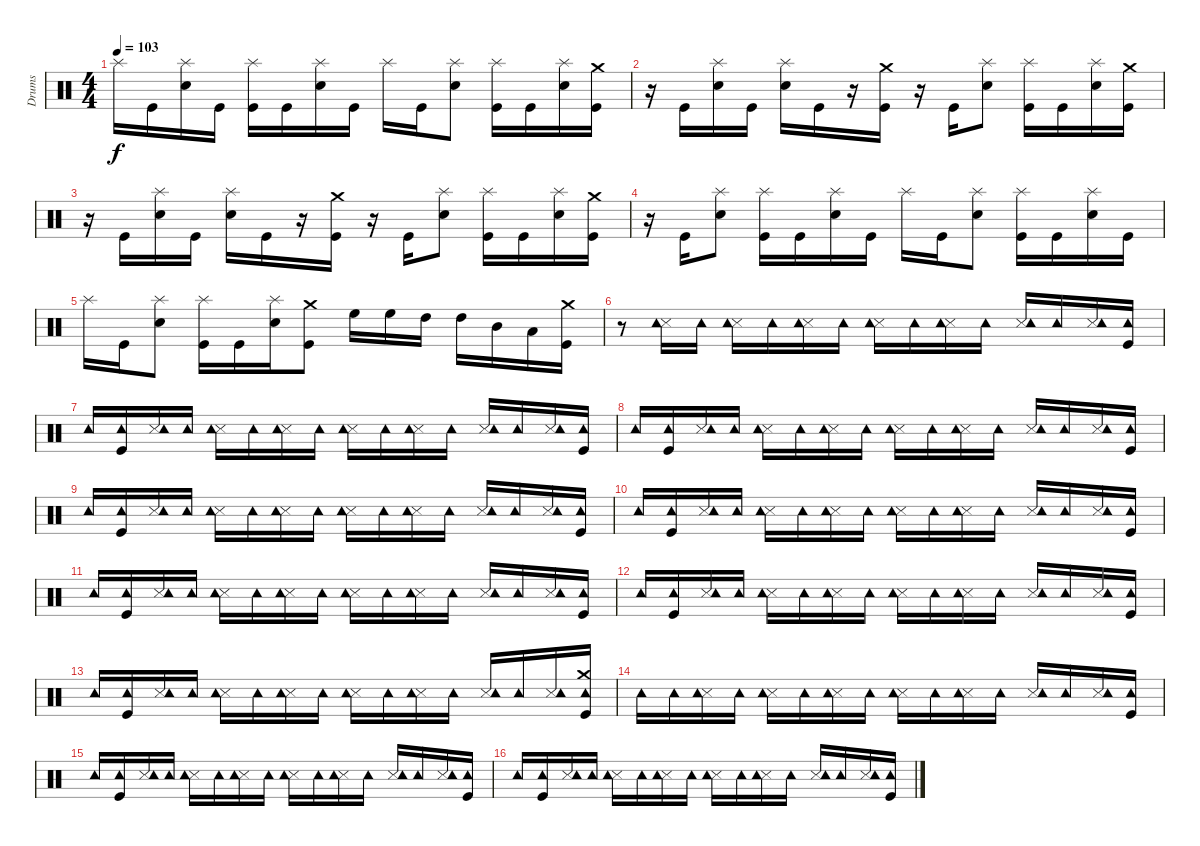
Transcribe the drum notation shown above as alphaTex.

\track ("Drums" "Drums") {instrument percussion}
\staff {score}
\articulation defaults
\ts (4 4)
\tempo 103
\clef neutral
\ks c "Splash (hit)".16{dy f} "Kick (hit)".16
("Splash (hit)" "Electric Snare (hit)").16 "Kick (hit)".16 ("Kick (hit)" "Splash (hit)").16 "Kick (hit)".16 ("Splash (hit)" "Electric Snare (hit)").16 "Kick (hit)".16 "Splash (hit)".16 "Kick (hit)".16 ("Splash (hit)" "Electric Snare (hit)").8 ("Kick (hit)" "Splash (hit)").16 "Kick (hit)".16 ("Splash (hit)" "Electric Snare (hit)").16 ("Crash medium (hit)" "Kick (hit)").16 |
r.16 "Kick (hit)".16 ("Splash (hit)" "Electric Snare (hit)").16 "Kick (hit)".16 ("Electric Snare (hit)" "Splash (hit)").16 "Kick (hit)".16 r.16 ("Crash medium (hit)" "Kick (hit)").16 r.16 "Kick (hit)".16 ("Splash (hit)" "Electric Snare (hit)").8 ("Kick (hit)" "Splash (hit)").16 "Kick (hit)".16 ("Splash (hit)" "Electric Snare (hit)").16 ("Crash medium (hit)" "Kick (hit)").16 |
r.16 "Kick (hit)".16 ("Splash (hit)" "Electric Snare (hit)").16 "Kick (hit)".16 ("Electric Snare (hit)" "Splash (hit)").16 "Kick (hit)".16 r.16 ("Crash medium (hit)" "Kick (hit)").16 r.16 "Kick (hit)".16 ("Splash (hit)" "Electric Snare (hit)").8 ("Kick (hit)" "Splash (hit)").16 "Kick (hit)".16 ("Splash (hit)" "Electric Snare (hit)").16 ("Crash medium (hit)" "Kick (hit)").16 |
r.16 "Kick (hit)".16 ("Splash (hit)" "Electric Snare (hit)").8 ("Kick (hit)" "Splash (hit)").16 "Kick (hit)".16 ("Splash (hit)" "Electric Snare (hit)").16 "Kick (hit)".16 "Splash (hit)".16 "Kick (hit)".16 ("Splash (hit)" "Electric Snare (hit)").8 ("Kick (hit)" "Splash (hit)").16 "Kick (hit)".16 ("Splash (hit)" "Electric Snare (hit)").16 "Kick (hit)".16 |
"Splash (hit)".16 "Kick (hit)".16 ("Splash (hit)" "Electric Snare (hit)").8 ("Splash (hit)" "Kick (hit)").16 "Kick (hit)".16 ("Splash (hit)" "Electric Snare (hit)").16 ("Kick (hit)" "Crash medium (hit)").8 "High Floor Tom (hit)".16 "High Floor Tom (hit)".16 "High Tom (hit)".16 "High Tom (hit)".16 "Mid Tom (hit)".16 "Low Tom (hit)".16 ("Crash medium (hit)" "Kick (hit)").16 |
r.8 ("Snare (side stick) 3" "Tambourine (hit)").16 "Tambourine (hit)".16 ("Snare (side stick) 3" "Tambourine (hit)").16 "Tambourine (hit)".16 ("Snare (side stick) 3" "Tambourine (hit)").16 "Tambourine (hit)".16 ("Snare (side stick) 3" "Tambourine (hit)").16 "Tambourine (hit)".16 ("Snare (side stick) 3" "Tambourine (hit)").16 "Tambourine (hit)".16 ("Snare (side stick) 3" "Tambourine (hit)").16 "Tambourine (hit)".16 ("Snare (side stick) 3" "Tambourine (hit)").16 ("Kick (hit)" "Tambourine (hit)").16 |
"Tambourine (hit)".16 ("Tambourine (hit)" "Kick (hit)").16 ("Snare (side stick) 3" "Tambourine (hit)").16 "Tambourine (hit)".16 ("Snare (side stick) 3" "Tambourine (hit)").16 "Tambourine (hit)".16 ("Snare (side stick) 3" "Tambourine (hit)").16 "Tambourine (hit)".16 ("Snare (side stick) 3" "Tambourine (hit)").16 "Tambourine (hit)".16 ("Snare (side stick) 3" "Tambourine (hit)").16 "Tambourine (hit)".16 ("Snare (side stick) 3" "Tambourine (hit)").16 "Tambourine (hit)".16 ("Snare (side stick) 3" "Tambourine (hit)").16 ("Kick (hit)" "Tambourine (hit)").16 |
"Tambourine (hit)".16 ("Tambourine (hit)" "Kick (hit)").16 ("Snare (side stick) 3" "Tambourine (hit)").16 "Tambourine (hit)".16 ("Snare (side stick) 3" "Tambourine (hit)").16 "Tambourine (hit)".16 ("Snare (side stick) 3" "Tambourine (hit)").16 "Tambourine (hit)".16 ("Snare (side stick) 3" "Tambourine (hit)").16 "Tambourine (hit)".16 ("Snare (side stick) 3" "Tambourine (hit)").16 "Tambourine (hit)".16 ("Snare (side stick) 3" "Tambourine (hit)").16 "Tambourine (hit)".16 ("Snare (side stick) 3" "Tambourine (hit)").16 ("Kick (hit)" "Tambourine (hit)").16 |
"Tambourine (hit)".16 ("Tambourine (hit)" "Kick (hit)").16 ("Snare (side stick) 3" "Tambourine (hit)").16 "Tambourine (hit)".16 ("Snare (side stick) 3" "Tambourine (hit)").16 "Tambourine (hit)".16 ("Snare (side stick) 3" "Tambourine (hit)").16 "Tambourine (hit)".16 ("Snare (side stick) 3" "Tambourine (hit)").16 "Tambourine (hit)".16 ("Snare (side stick) 3" "Tambourine (hit)").16 "Tambourine (hit)".16 ("Snare (side stick) 3" "Tambourine (hit)").16 "Tambourine (hit)".16 ("Snare (side stick) 3" "Tambourine (hit)").16 ("Kick (hit)" "Tambourine (hit)").16 |
"Tambourine (hit)".16 ("Tambourine (hit)" "Kick (hit)").16 ("Snare (side stick) 3" "Tambourine (hit)").16 "Tambourine (hit)".16 ("Snare (side stick) 3" "Tambourine (hit)").16 "Tambourine (hit)".16 ("Snare (side stick) 3" "Tambourine (hit)").16 "Tambourine (hit)".16 ("Snare (side stick) 3" "Tambourine (hit)").16 "Tambourine (hit)".16 ("Snare (side stick) 3" "Tambourine (hit)").16 "Tambourine (hit)".16 ("Snare (side stick) 3" "Tambourine (hit)").16 "Tambourine (hit)".16 ("Snare (side stick) 3" "Tambourine (hit)").16 ("Kick (hit)" "Tambourine (hit)").16 |
"Tambourine (hit)".16 ("Tambourine (hit)" "Kick (hit)").16 ("Snare (side stick) 3" "Tambourine (hit)").16 "Tambourine (hit)".16 ("Snare (side stick) 3" "Tambourine (hit)").16 "Tambourine (hit)".16 ("Snare (side stick) 3" "Tambourine (hit)").16 "Tambourine (hit)".16 ("Snare (side stick) 3" "Tambourine (hit)").16 "Tambourine (hit)".16 ("Snare (side stick) 3" "Tambourine (hit)").16 "Tambourine (hit)".16 ("Snare (side stick) 3" "Tambourine (hit)").16 "Tambourine (hit)".16 ("Snare (side stick) 3" "Tambourine (hit)").16 ("Kick (hit)" "Tambourine (hit)").16 |
"Tambourine (hit)".16 ("Tambourine (hit)" "Kick (hit)").16 ("Snare (side stick) 3" "Tambourine (hit)").16 "Tambourine (hit)".16 ("Snare (side stick) 3" "Tambourine (hit)").16 "Tambourine (hit)".16 ("Snare (side stick) 3" "Tambourine (hit)").16 "Tambourine (hit)".16 ("Snare (side stick) 3" "Tambourine (hit)").16 "Tambourine (hit)".16 ("Snare (side stick) 3" "Tambourine (hit)").16 "Tambourine (hit)".16 ("Snare (side stick) 3" "Tambourine (hit)").16 "Tambourine (hit)".16 ("Snare (side stick) 3" "Tambourine (hit)").16 ("Kick (hit)" "Tambourine (hit)").16 |
"Tambourine (hit)".16 ("Tambourine (hit)" "Kick (hit)").16 ("Snare (side stick) 3" "Tambourine (hit)").16 "Tambourine (hit)".16 ("Snare (side stick) 3" "Tambourine (hit)").16 "Tambourine (hit)".16 ("Snare (side stick) 3" "Tambourine (hit)").16 "Tambourine (hit)".16 ("Snare (side stick) 3" "Tambourine (hit)").16 "Tambourine (hit)".16 ("Snare (side stick) 3" "Tambourine (hit)").16 "Tambourine (hit)".16 ("Snare (side stick) 3" "Tambourine (hit)").16 "Tambourine (hit)".16 ("Snare (side stick) 3" "Tambourine (hit)").16 ("Crash medium (hit)" "Kick (hit)" "Tambourine (hit)").16 |
"Tambourine (hit)".16 "Tambourine (hit)".16 ("Snare (side stick) 3" "Tambourine (hit)").16 "Tambourine (hit)".16 ("Snare (side stick) 3" "Tambourine (hit)").16 "Tambourine (hit)".16 ("Snare (side stick) 3" "Tambourine (hit)").16 "Tambourine (hit)".16 ("Snare (side stick) 3" "Tambourine (hit)").16 "Tambourine (hit)".16 ("Snare (side stick) 3" "Tambourine (hit)").16 "Tambourine (hit)".16 ("Snare (side stick) 3" "Tambourine (hit)").16 "Tambourine (hit)".16 ("Snare (side stick) 3" "Tambourine (hit)").16 ("Kick (hit)" "Tambourine (hit)").16 |
"Tambourine (hit)".16 ("Tambourine (hit)" "Kick (hit)").16 ("Snare (side stick) 3" "Tambourine (hit)").16 "Tambourine (hit)".16 ("Snare (side stick) 3" "Tambourine (hit)").16 "Tambourine (hit)".16 ("Snare (side stick) 3" "Tambourine (hit)").16 "Tambourine (hit)".16 ("Snare (side stick) 3" "Tambourine (hit)").16 "Tambourine (hit)".16 ("Snare (side stick) 3" "Tambourine (hit)").16 "Tambourine (hit)".16 ("Snare (side stick) 3" "Tambourine (hit)").16 "Tambourine (hit)".16 ("Snare (side stick) 3" "Tambourine (hit)").16 ("Kick (hit)" "Tambourine (hit)").16 |
"Tambourine (hit)".16 ("Tambourine (hit)" "Kick (hit)").16 ("Snare (side stick) 3" "Tambourine (hit)").16 "Tambourine (hit)".16 ("Snare (side stick) 3" "Tambourine (hit)").16 "Tambourine (hit)".16 ("Snare (side stick) 3" "Tambourine (hit)").16 "Tambourine (hit)".16 ("Snare (side stick) 3" "Tambourine (hit)").16 "Tambourine (hit)".16 ("Snare (side stick) 3" "Tambourine (hit)").16 "Tambourine (hit)".16 ("Snare (side stick) 3" "Tambourine (hit)").16 "Tambourine (hit)".16 ("Snare (side stick) 3" "Tambourine (hit)").16 ("Kick (hit)" "Tambourine (hit)").16
